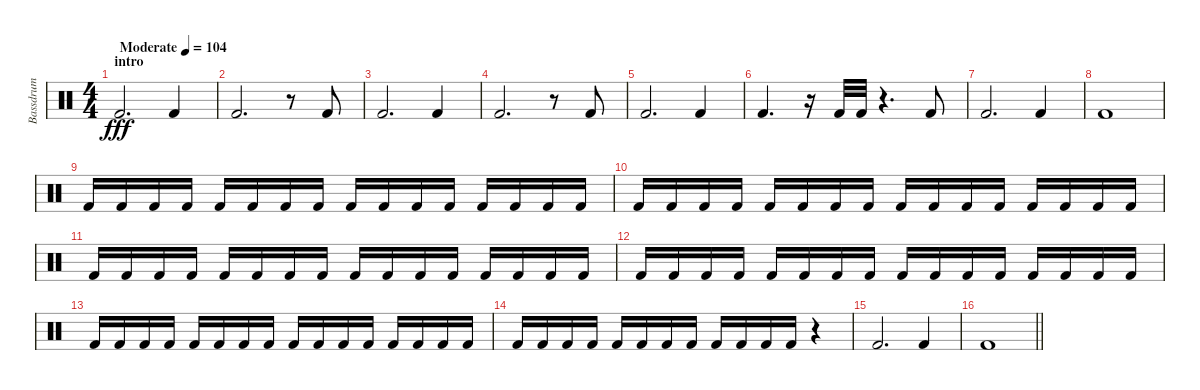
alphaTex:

\track ("Bassdrum" "Bassdrum") {instrument percussion}
\staff {score}
\articulation defaults
\ts (4 4)
\section ("" "intro")
\tempo (104 "Moderate")
\clef neutral
\ks c "Kick (hit) 2".2{d dy fff volume 16} "Kick (hit) 2".4
|
"Kick (hit) 2".2{d} r.8 "Kick (hit) 2".8 |
"Kick (hit) 2".2{d} "Kick (hit) 2".4 |
"Kick (hit) 2".2{d} r.8 "Kick (hit) 2".8 |
"Kick (hit) 2".2{d} "Kick (hit) 2".4 |
"Kick (hit) 2".4{d} r.16 "Kick (hit) 2".32 "Kick (hit) 2".32 r.4{d} "Kick (hit) 2".8 |
"Kick (hit) 2".2{d} "Kick (hit) 2".4 |
"Kick (hit) 2".1 |
"Kick (hit) 2".16 "Kick (hit) 2".16 "Kick (hit) 2".16 "Kick (hit) 2".16 "Kick (hit) 2".16 "Kick (hit) 2".16 "Kick (hit) 2".16 "Kick (hit) 2".16 "Kick (hit) 2".16 "Kick (hit) 2".16 "Kick (hit) 2".16 "Kick (hit) 2".16 "Kick (hit) 2".16 "Kick (hit) 2".16 "Kick (hit) 2".16 "Kick (hit) 2".16 |
"Kick (hit) 2".16 "Kick (hit) 2".16 "Kick (hit) 2".16 "Kick (hit) 2".16 "Kick (hit) 2".16 "Kick (hit) 2".16 "Kick (hit) 2".16 "Kick (hit) 2".16 "Kick (hit) 2".16 "Kick (hit) 2".16 "Kick (hit) 2".16 "Kick (hit) 2".16 "Kick (hit) 2".16 "Kick (hit) 2".16 "Kick (hit) 2".16 "Kick (hit) 2".16 |
"Kick (hit) 2".16 "Kick (hit) 2".16 "Kick (hit) 2".16 "Kick (hit) 2".16 "Kick (hit) 2".16 "Kick (hit) 2".16 "Kick (hit) 2".16 "Kick (hit) 2".16 "Kick (hit) 2".16 "Kick (hit) 2".16 "Kick (hit) 2".16 "Kick (hit) 2".16 "Kick (hit) 2".16 "Kick (hit) 2".16 "Kick (hit) 2".16 "Kick (hit) 2".16 |
"Kick (hit) 2".16 "Kick (hit) 2".16 "Kick (hit) 2".16 "Kick (hit) 2".16 "Kick (hit) 2".16 "Kick (hit) 2".16 "Kick (hit) 2".16 "Kick (hit) 2".16 "Kick (hit) 2".16 "Kick (hit) 2".16 "Kick (hit) 2".16 "Kick (hit) 2".16 "Kick (hit) 2".16 "Kick (hit) 2".16 "Kick (hit) 2".16 "Kick (hit) 2".16 |
"Kick (hit) 2".16 "Kick (hit) 2".16 "Kick (hit) 2".16 "Kick (hit) 2".16 "Kick (hit) 2".16 "Kick (hit) 2".16 "Kick (hit) 2".16 "Kick (hit) 2".16 "Kick (hit) 2".16 "Kick (hit) 2".16 "Kick (hit) 2".16 "Kick (hit) 2".16 "Kick (hit) 2".16 "Kick (hit) 2".16 "Kick (hit) 2".16 "Kick (hit) 2".16 |
"Kick (hit) 2".16 "Kick (hit) 2".16 "Kick (hit) 2".16 "Kick (hit) 2".16 "Kick (hit) 2".16 "Kick (hit) 2".16 "Kick (hit) 2".16 "Kick (hit) 2".16 "Kick (hit) 2".16 "Kick (hit) 2".16 "Kick (hit) 2".16 "Kick (hit) 2".16 r.4 |
"Kick (hit) 2".2{d} "Kick (hit) 2".4 |
\barLineRight lightlight "Kick (hit) 2".1
